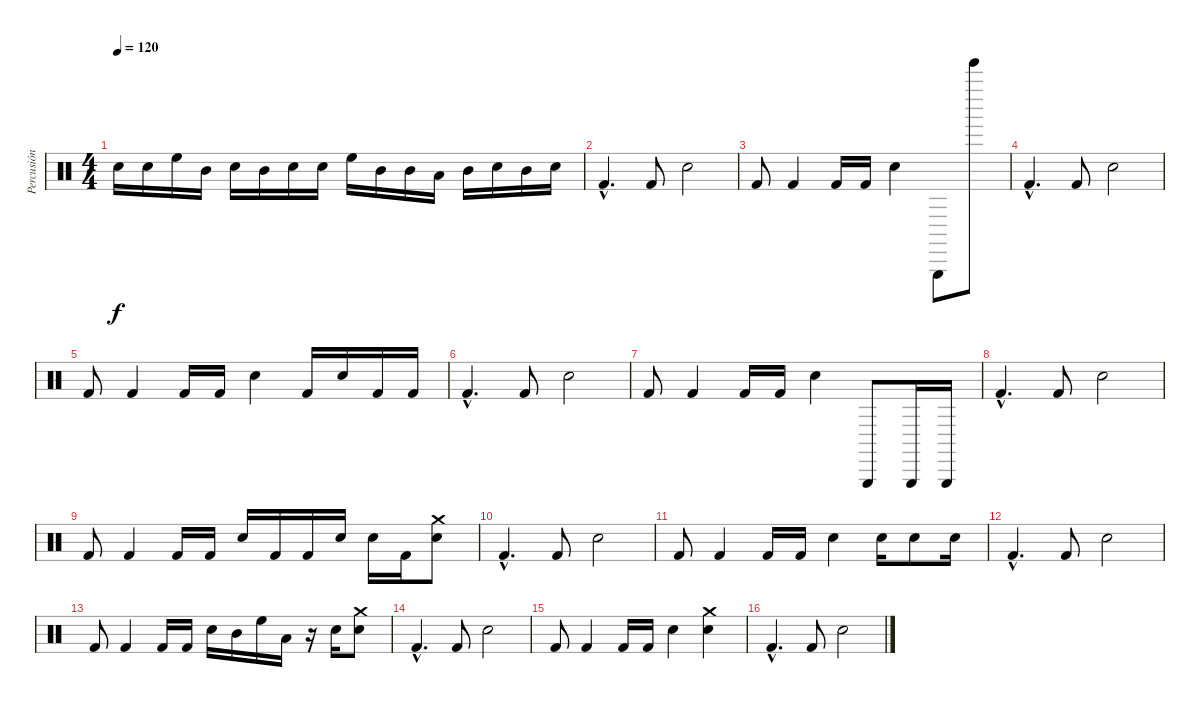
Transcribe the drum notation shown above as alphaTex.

\track ("Percusión" "Percusión") {instrument percussion}
\staff {score}
\articulation defaults
\ts (4 4)
\tempo 120
\clef neutral
\ks c "Electric Snare (hit)".16{dy f} "Electric Snare (hit)".16 "High Floor Tom (hit)".16 "Mid Tom (hit)".16 "Electric Snare (hit)".16 "Mid Tom (hit)".16 "Electric Snare (hit)".16 "Electric Snare (hit)".16 "High Floor Tom (hit)".16 "Mid Tom (hit)".16 "Mid Tom (hit)".16 "Low Tom (hit)".16 "Mid Tom (hit)".16 "Electric Snare (hit)".16 "Mid Tom (hit)".16 "Electric Snare (hit)".16
|
"Kick (hit) 2"{hac}.4{d} "Kick (hit) 2".8 "Electric Snare (hit)".2 |
"Kick (hit) 2".8 "Kick (hit) 2".4 "Kick (hit) 2".16 "Kick (hit) 2".16 "Electric Snare (hit)".4 "Triangle (hit)".8 "Tinkle Bell (hit)".8 |
"Kick (hit) 2"{hac}.4{d} "Kick (hit) 2".8 "Electric Snare (hit)".2 |
"Kick (hit) 2".8 "Kick (hit) 2".4 "Kick (hit) 2".16 "Kick (hit) 2".16 "Electric Snare (hit)".4 "Kick (hit) 2".16 "Electric Snare (hit)".16 "Kick (hit) 2".16 "Kick (hit) 2".16 |
"Kick (hit) 2"{hac}.4{d} "Kick (hit) 2".8 "Electric Snare (hit)".2 |
"Kick (hit) 2".8 "Kick (hit) 2".4 "Kick (hit) 2".16 "Kick (hit) 2".16 "Electric Snare (hit)".4 "Triangle (hit)".8 "Triangle (hit)".16 "Triangle (hit)".16 |
"Kick (hit) 2"{hac}.4{d} "Kick (hit) 2".8 "Electric Snare (hit)".2 |
"Kick (hit) 2".8 "Kick (hit) 2".4 "Kick (hit) 2".16 "Kick (hit) 2".16 "Electric Snare (hit)".16 "Kick (hit) 2".16 "Kick (hit) 2".16 "Electric Snare (hit)".16 "Electric Snare (hit)".16 "Kick (hit) 2".16 ("Crash medium (hit)" "Electric Snare (hit)").8 |
"Kick (hit) 2"{hac}.4{d} "Kick (hit) 2".8 "Electric Snare (hit)".2 |
"Kick (hit) 2".8 "Kick (hit) 2".4 "Kick (hit) 2".16 "Kick (hit) 2".16 "Electric Snare (hit)".4 "Electric Snare (hit)".16 "Electric Snare (hit)".8 "Electric Snare (hit)".16 |
"Kick (hit) 2"{hac}.4{d} "Kick (hit) 2".8 "Electric Snare (hit)".2 |
"Kick (hit) 2".8 "Kick (hit) 2".4 "Kick (hit) 2".16 "Kick (hit) 2".16 "Electric Snare (hit)".16 "Mid Tom (hit)".16 "High Floor Tom (hit)".16 "Low Tom (hit)".16 r.16 "Electric Snare (hit)".16 ("Crash medium (hit)" "Electric Snare (hit)").8 |
"Kick (hit) 2"{hac}.4{d} "Kick (hit) 2".8 "Electric Snare (hit)".2 |
"Kick (hit) 2".8 "Kick (hit) 2".4 "Kick (hit) 2".16 "Kick (hit) 2".16 "Electric Snare (hit)".4 ("Crash medium (hit)" "Electric Snare (hit)").4 |
"Kick (hit) 2"{hac}.4{d} "Kick (hit) 2".8 "Electric Snare (hit)".2
